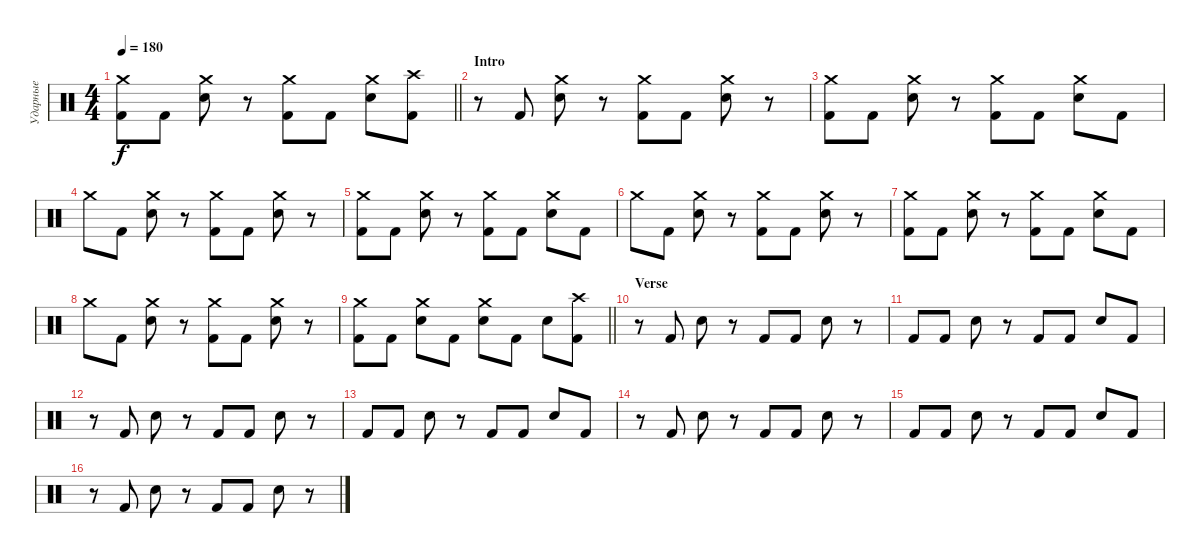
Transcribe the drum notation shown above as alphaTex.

\track ("Ударные" "Ударные") {instrument percussion}
\staff {score}
\articulation defaults
\ts (4 4)
\tempo 180
\clef neutral
\barLineRight lightlight
\ks c
("Crash medium (hit)" "Kick (hit) 2").8{dy f} "Kick (hit) 2".8 ("Crash medium (hit)" "Snare (hit) 2").8 r.8 ("Crash medium (hit)" "Kick (hit) 2").8 "Kick (hit) 2".8 ("Crash medium (hit)" "Snare (hit) 2").8 ("Crash high (hit)" "Kick (hit) 2").8 |
\section ("" "Intro")
r.8 "Kick (hit) 2".8 ("Crash medium (hit)" "Snare (hit) 2").8 r.8 ("Crash medium (hit)" "Kick (hit) 2").8 "Kick (hit) 2".8 ("Crash medium (hit)" "Snare (hit) 2").8 r.8 |
("Crash medium (hit)" "Kick (hit) 2").8 "Kick (hit) 2".8 ("Crash medium (hit)" "Snare (hit) 2").8 r.8 ("Crash medium (hit)" "Kick (hit) 2").8 "Kick (hit) 2".8 ("Crash medium (hit)" "Snare (hit) 2").8 "Kick (hit) 2".8 |
"Crash medium (hit)".8 "Kick (hit) 2".8 ("Crash medium (hit)" "Snare (hit) 2").8 r.8 ("Crash medium (hit)" "Kick (hit) 2").8 "Kick (hit) 2".8 ("Crash medium (hit)" "Snare (hit) 2").8 r.8 |
("Crash medium (hit)" "Kick (hit) 2").8 "Kick (hit) 2".8 ("Crash medium (hit)" "Snare (hit) 2").8 r.8 ("Crash medium (hit)" "Kick (hit) 2").8 "Kick (hit) 2".8 ("Crash medium (hit)" "Snare (hit) 2").8 "Kick (hit) 2".8 |
"Crash medium (hit)".8 "Kick (hit) 2".8 ("Crash medium (hit)" "Snare (hit) 2").8 r.8 ("Crash medium (hit)" "Kick (hit) 2").8 "Kick (hit) 2".8 ("Crash medium (hit)" "Snare (hit) 2").8 r.8 |
("Crash medium (hit)" "Kick (hit) 2").8 "Kick (hit) 2".8 ("Crash medium (hit)" "Snare (hit) 2").8 r.8 ("Crash medium (hit)" "Kick (hit) 2").8 "Kick (hit) 2".8 ("Crash medium (hit)" "Snare (hit) 2").8 "Kick (hit) 2".8 |
"Crash medium (hit)".8 "Kick (hit) 2".8 ("Crash medium (hit)" "Snare (hit) 2").8 r.8 ("Crash medium (hit)" "Kick (hit) 2").8 "Kick (hit) 2".8 ("Crash medium (hit)" "Snare (hit) 2").8 r.8 |
\barLineRight lightlight
("Crash medium (hit)" "Kick (hit) 2").8 "Kick (hit) 2".8 ("Crash medium (hit)" "Snare (hit) 2").8 "Kick (hit) 2".8 ("Crash medium (hit)" "Snare (hit) 2").8 "Kick (hit) 2".8 "Snare (hit) 2".8 ("Crash high (hit)" "Kick (hit) 2").8 |
\section ("" "Verse")
r.8 "Kick (hit) 2".8 "Snare (hit) 2".8 r.8 "Kick (hit) 2".8 "Kick (hit) 2".8 "Snare (hit) 2".8 r.8 |
"Kick (hit) 2".8 "Kick (hit) 2".8 "Snare (hit) 2".8 r.8 "Kick (hit) 2".8 "Kick (hit) 2".8 "Snare (hit) 2".8 "Kick (hit) 2".8 |
r.8 "Kick (hit) 2".8 "Snare (hit) 2".8 r.8 "Kick (hit) 2".8 "Kick (hit) 2".8 "Snare (hit) 2".8 r.8 |
"Kick (hit) 2".8 "Kick (hit) 2".8 "Snare (hit) 2".8 r.8 "Kick (hit) 2".8 "Kick (hit) 2".8 "Snare (hit) 2".8 "Kick (hit) 2".8 |
r.8 "Kick (hit) 2".8 "Snare (hit) 2".8 r.8 "Kick (hit) 2".8 "Kick (hit) 2".8 "Snare (hit) 2".8 r.8 |
"Kick (hit) 2".8 "Kick (hit) 2".8 "Snare (hit) 2".8 r.8 "Kick (hit) 2".8 "Kick (hit) 2".8 "Snare (hit) 2".8 "Kick (hit) 2".8 |
r.8 "Kick (hit) 2".8 "Snare (hit) 2".8 r.8 "Kick (hit) 2".8 "Kick (hit) 2".8 "Snare (hit) 2".8 r.8
